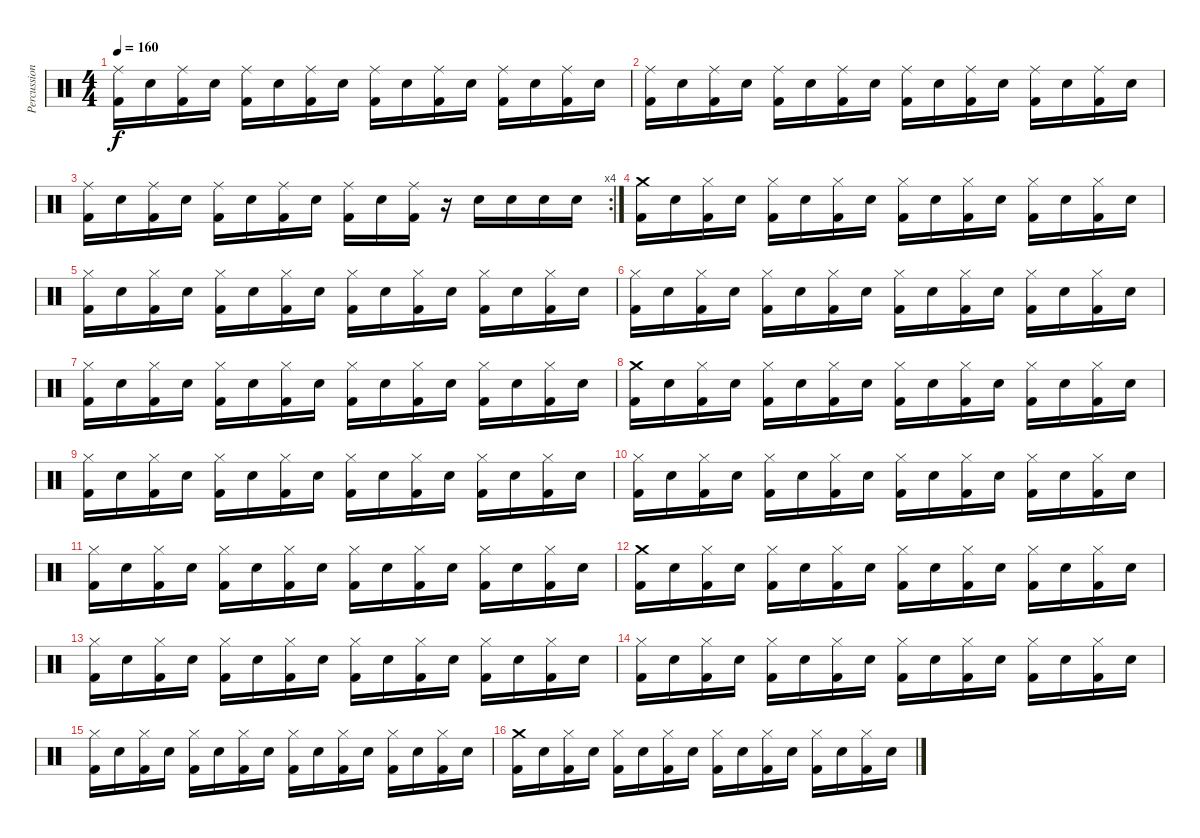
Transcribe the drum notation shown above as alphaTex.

\track ("Percussions" "Percussion") {instrument percussion}
\staff {score}
\articulation defaults
\ts (4 4)
\tempo 160
\clef neutral
\ks c
("Ride (middle)" "Kick (hit) 2").16{dy f} "Snare (hit) 2".16 ("Ride (middle)" "Kick (hit) 2").16 "Snare (hit) 2".16 ("Ride (middle)" "Kick (hit) 2").16 "Snare (hit) 2".16 ("Ride (middle)" "Kick (hit) 2").16 "Snare (hit) 2".16 ("Ride (middle)" "Kick (hit) 2").16 "Snare (hit) 2".16 ("Ride (middle)" "Kick (hit) 2").16 "Snare (hit) 2".16 ("Ride (middle)" "Kick (hit) 2").16 "Snare (hit) 2".16 ("Ride (middle)" "Kick (hit) 2").16 "Snare (hit) 2".16 |
("Ride (middle)" "Kick (hit) 2").16 "Snare (hit) 2".16 ("Ride (middle)" "Kick (hit) 2").16 "Snare (hit) 2".16 ("Ride (middle)" "Kick (hit) 2").16 "Snare (hit) 2".16 ("Ride (middle)" "Kick (hit) 2").16 "Snare (hit) 2".16 ("Ride (middle)" "Kick (hit) 2").16 "Snare (hit) 2".16 ("Ride (middle)" "Kick (hit) 2").16 "Snare (hit) 2".16 ("Ride (middle)" "Kick (hit) 2").16 "Snare (hit) 2".16 ("Ride (middle)" "Kick (hit) 2").16 "Snare (hit) 2".16 |
\rc 4
("Ride (middle)" "Kick (hit) 2").16 "Snare (hit) 2".16 ("Ride (middle)" "Kick (hit) 2").16 "Snare (hit) 2".16 ("Ride (middle)" "Kick (hit) 2").16 "Snare (hit) 2".16 ("Ride (middle)" "Kick (hit) 2").16 "Snare (hit) 2".16 ("Ride (middle)" "Kick (hit) 2").16 "Snare (hit) 2".16 ("Ride (middle)" "Kick (hit) 2").16 r.16 "Snare (hit) 2".16 "Snare (hit) 2".16 "Snare (hit) 2".16 "Snare (hit) 2".16 |
("Crash medium (hit)" "Kick (hit) 2").16 "Snare (hit) 2".16 ("Hi-Hat (closed)" "Kick (hit) 2").16 "Snare (hit) 2".16 ("Hi-Hat (closed)" "Kick (hit) 2").16 "Snare (hit) 2".16 ("Hi-Hat (closed)" "Kick (hit) 2").16 "Snare (hit) 2".16 ("Hi-Hat (closed)" "Kick (hit) 2").16 "Snare (hit) 2".16 ("Hi-Hat (closed)" "Kick (hit) 2").16 "Snare (hit) 2".16 ("Hi-Hat (closed)" "Kick (hit) 2").16 "Snare (hit) 2".16 ("Hi-Hat (closed)" "Kick (hit) 2").16 "Snare (hit) 2".16 |
("Hi-Hat (closed)" "Kick (hit) 2").16 "Snare (hit) 2".16 ("Hi-Hat (closed)" "Kick (hit) 2").16 "Snare (hit) 2".16 ("Hi-Hat (closed)" "Kick (hit) 2").16 "Snare (hit) 2".16 ("Hi-Hat (closed)" "Kick (hit) 2").16 "Snare (hit) 2".16 ("Hi-Hat (closed)" "Kick (hit) 2").16 "Snare (hit) 2".16 ("Hi-Hat (closed)" "Kick (hit) 2").16 "Snare (hit) 2".16 ("Hi-Hat (closed)" "Kick (hit) 2").16 "Snare (hit) 2".16 ("Hi-Hat (closed)" "Kick (hit) 2").16 "Snare (hit) 2".16 |
("Hi-Hat (closed)" "Kick (hit) 2").16 "Snare (hit) 2".16 ("Hi-Hat (closed)" "Kick (hit) 2").16 "Snare (hit) 2".16 ("Hi-Hat (closed)" "Kick (hit) 2").16 "Snare (hit) 2".16 ("Hi-Hat (closed)" "Kick (hit) 2").16 "Snare (hit) 2".16 ("Hi-Hat (closed)" "Kick (hit) 2").16 "Snare (hit) 2".16 ("Hi-Hat (closed)" "Kick (hit) 2").16 "Snare (hit) 2".16 ("Hi-Hat (closed)" "Kick (hit) 2").16 "Snare (hit) 2".16 ("Hi-Hat (closed)" "Kick (hit) 2").16 "Snare (hit) 2".16 |
("Hi-Hat (closed)" "Kick (hit) 2").16 "Snare (hit) 2".16 ("Hi-Hat (closed)" "Kick (hit) 2").16 "Snare (hit) 2".16 ("Hi-Hat (closed)" "Kick (hit) 2").16 "Snare (hit) 2".16 ("Hi-Hat (closed)" "Kick (hit) 2").16 "Snare (hit) 2".16 ("Hi-Hat (closed)" "Kick (hit) 2").16 "Snare (hit) 2".16 ("Hi-Hat (closed)" "Kick (hit) 2").16 "Snare (hit) 2".16 ("Hi-Hat (closed)" "Kick (hit) 2").16 "Snare (hit) 2".16 ("Hi-Hat (closed)" "Kick (hit) 2").16 "Snare (hit) 2".16 |
("Crash medium (hit)" "Kick (hit) 2").16 "Snare (hit) 2".16 ("Hi-Hat (closed)" "Kick (hit) 2").16 "Snare (hit) 2".16 ("Hi-Hat (closed)" "Kick (hit) 2").16 "Snare (hit) 2".16 ("Hi-Hat (closed)" "Kick (hit) 2").16 "Snare (hit) 2".16 ("Hi-Hat (closed)" "Kick (hit) 2").16 "Snare (hit) 2".16 ("Hi-Hat (closed)" "Kick (hit) 2").16 "Snare (hit) 2".16 ("Hi-Hat (closed)" "Kick (hit) 2").16 "Snare (hit) 2".16 ("Hi-Hat (closed)" "Kick (hit) 2").16 "Snare (hit) 2".16 |
("Hi-Hat (closed)" "Kick (hit) 2").16 "Snare (hit) 2".16 ("Hi-Hat (closed)" "Kick (hit) 2").16 "Snare (hit) 2".16 ("Hi-Hat (closed)" "Kick (hit) 2").16 "Snare (hit) 2".16 ("Hi-Hat (closed)" "Kick (hit) 2").16 "Snare (hit) 2".16 ("Hi-Hat (closed)" "Kick (hit) 2").16 "Snare (hit) 2".16 ("Hi-Hat (closed)" "Kick (hit) 2").16 "Snare (hit) 2".16 ("Hi-Hat (closed)" "Kick (hit) 2").16 "Snare (hit) 2".16 ("Hi-Hat (closed)" "Kick (hit) 2").16 "Snare (hit) 2".16 |
("Hi-Hat (closed)" "Kick (hit) 2").16 "Snare (hit) 2".16 ("Hi-Hat (closed)" "Kick (hit) 2").16 "Snare (hit) 2".16 ("Hi-Hat (closed)" "Kick (hit) 2").16 "Snare (hit) 2".16 ("Hi-Hat (closed)" "Kick (hit) 2").16 "Snare (hit) 2".16 ("Hi-Hat (closed)" "Kick (hit) 2").16 "Snare (hit) 2".16 ("Hi-Hat (closed)" "Kick (hit) 2").16 "Snare (hit) 2".16 ("Hi-Hat (closed)" "Kick (hit) 2").16 "Snare (hit) 2".16 ("Hi-Hat (closed)" "Kick (hit) 2").16 "Snare (hit) 2".16 |
("Hi-Hat (closed)" "Kick (hit) 2").16 "Snare (hit) 2".16 ("Hi-Hat (closed)" "Kick (hit) 2").16 "Snare (hit) 2".16 ("Hi-Hat (closed)" "Kick (hit) 2").16 "Snare (hit) 2".16 ("Hi-Hat (closed)" "Kick (hit) 2").16 "Snare (hit) 2".16 ("Hi-Hat (closed)" "Kick (hit) 2").16 "Snare (hit) 2".16 ("Hi-Hat (closed)" "Kick (hit) 2").16 "Snare (hit) 2".16 ("Hi-Hat (closed)" "Kick (hit) 2").16 "Snare (hit) 2".16 ("Hi-Hat (closed)" "Kick (hit) 2").16 "Snare (hit) 2".16 |
("Crash medium (hit)" "Kick (hit) 2").16 "Snare (hit) 2".16 ("Hi-Hat (closed)" "Kick (hit) 2").16 "Snare (hit) 2".16 ("Hi-Hat (closed)" "Kick (hit) 2").16 "Snare (hit) 2".16 ("Hi-Hat (closed)" "Kick (hit) 2").16 "Snare (hit) 2".16 ("Hi-Hat (closed)" "Kick (hit) 2").16 "Snare (hit) 2".16 ("Hi-Hat (closed)" "Kick (hit) 2").16 "Snare (hit) 2".16 ("Hi-Hat (closed)" "Kick (hit) 2").16 "Snare (hit) 2".16 ("Hi-Hat (closed)" "Kick (hit) 2").16 "Snare (hit) 2".16 |
("Hi-Hat (closed)" "Kick (hit) 2").16 "Snare (hit) 2".16 ("Hi-Hat (closed)" "Kick (hit) 2").16 "Snare (hit) 2".16 ("Hi-Hat (closed)" "Kick (hit) 2").16 "Snare (hit) 2".16 ("Hi-Hat (closed)" "Kick (hit) 2").16 "Snare (hit) 2".16 ("Hi-Hat (closed)" "Kick (hit) 2").16 "Snare (hit) 2".16 ("Hi-Hat (closed)" "Kick (hit) 2").16 "Snare (hit) 2".16 ("Hi-Hat (closed)" "Kick (hit) 2").16 "Snare (hit) 2".16 ("Hi-Hat (closed)" "Kick (hit) 2").16 "Snare (hit) 2".16 |
("Hi-Hat (closed)" "Kick (hit) 2").16 "Snare (hit) 2".16 ("Hi-Hat (closed)" "Kick (hit) 2").16 "Snare (hit) 2".16 ("Hi-Hat (closed)" "Kick (hit) 2").16 "Snare (hit) 2".16 ("Hi-Hat (closed)" "Kick (hit) 2").16 "Snare (hit) 2".16 ("Hi-Hat (closed)" "Kick (hit) 2").16 "Snare (hit) 2".16 ("Hi-Hat (closed)" "Kick (hit) 2").16 "Snare (hit) 2".16 ("Hi-Hat (closed)" "Kick (hit) 2").16 "Snare (hit) 2".16 ("Hi-Hat (closed)" "Kick (hit) 2").16 "Snare (hit) 2".16 |
("Hi-Hat (closed)" "Kick (hit) 2").16 "Snare (hit) 2".16 ("Hi-Hat (closed)" "Kick (hit) 2").16 "Snare (hit) 2".16 ("Hi-Hat (closed)" "Kick (hit) 2").16 "Snare (hit) 2".16 ("Hi-Hat (closed)" "Kick (hit) 2").16 "Snare (hit) 2".16 ("Hi-Hat (closed)" "Kick (hit) 2").16 "Snare (hit) 2".16 ("Hi-Hat (closed)" "Kick (hit) 2").16 "Snare (hit) 2".16 ("Hi-Hat (closed)" "Kick (hit) 2").16 "Snare (hit) 2".16 ("Hi-Hat (closed)" "Kick (hit) 2").16 "Snare (hit) 2".16 |
("Crash medium (hit)" "Kick (hit) 2").16 "Snare (hit) 2".16 ("Hi-Hat (closed)" "Kick (hit) 2").16 "Snare (hit) 2".16 ("Hi-Hat (closed)" "Kick (hit) 2").16 "Snare (hit) 2".16 ("Hi-Hat (closed)" "Kick (hit) 2").16 "Snare (hit) 2".16 ("Hi-Hat (closed)" "Kick (hit) 2").16 "Snare (hit) 2".16 ("Hi-Hat (closed)" "Kick (hit) 2").16 "Snare (hit) 2".16 ("Hi-Hat (closed)" "Kick (hit) 2").16 "Snare (hit) 2".16 ("Hi-Hat (closed)" "Kick (hit) 2").16 "Snare (hit) 2".16
